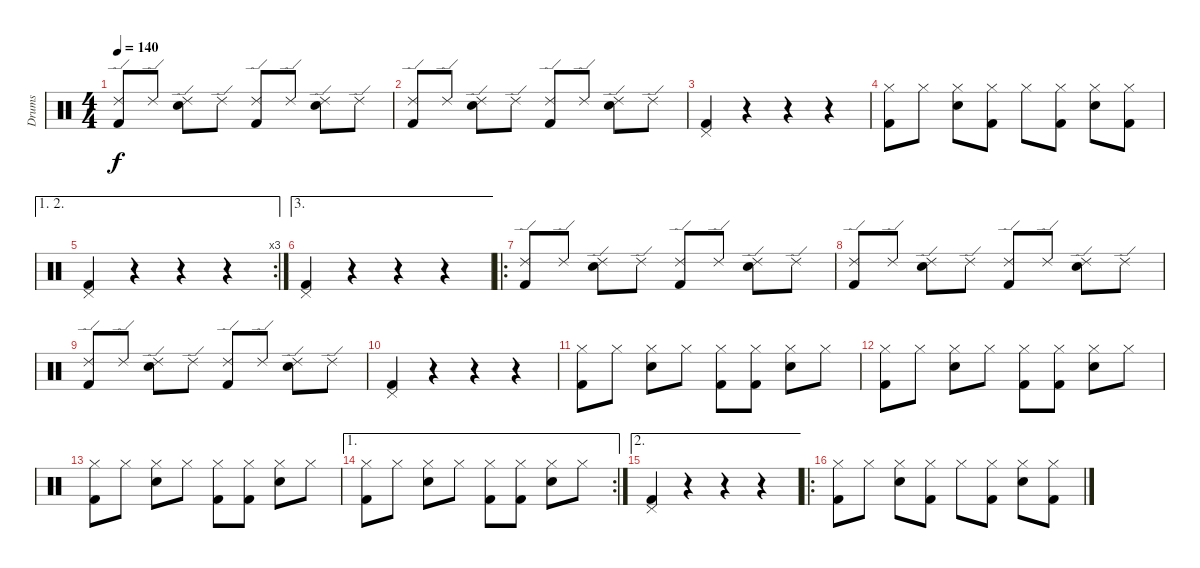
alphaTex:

\track ("Drums" "Drums") {instrument percussion}
\staff {score}
\articulation defaults
\ts (4 4)
\tempo 140
\clef neutral
\ks c
("Ride (edge) 2" "Kick (hit) 2").8{dy f} "Ride (edge) 2".8 ("Ride (edge) 2" "Snare (hit) 2").8 "Ride (edge) 2".8 ("Ride (edge) 2" "Kick (hit) 2").8 "Ride (edge) 2".8 ("Ride (edge) 2" "Snare (hit) 2").8 "Ride (edge) 2".8 |
("Ride (edge) 2" "Kick (hit) 2").8 "Ride (edge) 2".8 ("Ride (edge) 2" "Snare (hit) 2").8 "Ride (edge) 2".8 ("Ride (edge) 2" "Kick (hit) 2").8 "Ride (edge) 2".8 ("Ride (edge) 2" "Snare (hit) 2").8 "Ride (edge) 2".8 |
("Pedal Hi-Hat (hit)" "Kick (hit) 2").4 r.4 r.4 r.4 |
("Hi-Hat (closed)" "Kick (hit) 2").8 "Hi-Hat (closed)".8 ("Hi-Hat (closed)" "Snare (hit) 2").8 ("Hi-Hat (closed)" "Kick (hit) 2").8 "Hi-Hat (closed)".8 ("Hi-Hat (closed)" "Kick (hit) 2").8 ("Hi-Hat (closed)" "Snare (hit) 2").8 ("Hi-Hat (closed)" "Kick (hit) 2").8 |
\ae (1 2)
\rc 3
("Pedal Hi-Hat (hit)" "Kick (hit) 2").4 r.4 r.4 r.4 |
\ae 3
("Pedal Hi-Hat (hit)" "Kick (hit) 2").4 r.4 r.4 r.4 |
\ro
("Ride (edge) 2" "Kick (hit) 2").8 "Ride (edge) 2".8 ("Ride (edge) 2" "Snare (hit) 2").8 "Ride (edge) 2".8 ("Ride (edge) 2" "Kick (hit) 2").8 "Ride (edge) 2".8 ("Ride (edge) 2" "Snare (hit) 2").8 "Ride (edge) 2".8 |
("Ride (edge) 2" "Kick (hit) 2").8 "Ride (edge) 2".8 ("Ride (edge) 2" "Snare (hit) 2").8 "Ride (edge) 2".8 ("Ride (edge) 2" "Kick (hit) 2").8 "Ride (edge) 2".8 ("Ride (edge) 2" "Snare (hit) 2").8 "Ride (edge) 2".8 |
("Ride (edge) 2" "Kick (hit) 2").8 "Ride (edge) 2".8 ("Ride (edge) 2" "Snare (hit) 2").8 "Ride (edge) 2".8 ("Ride (edge) 2" "Kick (hit) 2").8 "Ride (edge) 2".8 ("Ride (edge) 2" "Snare (hit) 2").8 "Ride (edge) 2".8 |
("Pedal Hi-Hat (hit)" "Kick (hit) 2").4 r.4 r.4 r.4 |
("Hi-Hat (closed)" "Kick (hit) 2").8 "Hi-Hat (closed)".8 ("Hi-Hat (closed)" "Snare (hit) 2").8 "Hi-Hat (closed)".8 ("Hi-Hat (closed)" "Kick (hit) 2").8 ("Hi-Hat (closed)" "Kick (hit) 2").8 ("Hi-Hat (closed)" "Snare (hit) 2").8 "Hi-Hat (closed)".8 |
("Hi-Hat (closed)" "Kick (hit) 2").8 "Hi-Hat (closed)".8 ("Hi-Hat (closed)" "Snare (hit) 2").8 "Hi-Hat (closed)".8 ("Hi-Hat (closed)" "Kick (hit) 2").8 ("Hi-Hat (closed)" "Kick (hit) 2").8 ("Hi-Hat (closed)" "Snare (hit) 2").8 "Hi-Hat (closed)".8 |
("Hi-Hat (closed)" "Kick (hit) 2").8 "Hi-Hat (closed)".8 ("Hi-Hat (closed)" "Snare (hit) 2").8 "Hi-Hat (closed)".8 ("Hi-Hat (closed)" "Kick (hit) 2").8 ("Hi-Hat (closed)" "Kick (hit) 2").8 ("Hi-Hat (closed)" "Snare (hit) 2").8 "Hi-Hat (closed)".8 |
\ae 1
\rc 2
("Hi-Hat (closed)" "Kick (hit) 2").8 "Hi-Hat (closed)".8 ("Hi-Hat (closed)" "Snare (hit) 2").8 "Hi-Hat (closed)".8 ("Hi-Hat (closed)" "Kick (hit) 2").8 ("Hi-Hat (closed)" "Kick (hit) 2").8 ("Hi-Hat (closed)" "Snare (hit) 2").8 "Hi-Hat (closed)".8 |
\ae 2
("Pedal Hi-Hat (hit)" "Kick (hit) 2").4 r.4 r.4 r.4 |
\ro
("Hi-Hat (closed)" "Kick (hit) 2").8 "Hi-Hat (closed)".8 ("Hi-Hat (closed)" "Snare (hit) 2").8 ("Hi-Hat (closed)" "Kick (hit) 2").8 "Hi-Hat (closed)".8 ("Hi-Hat (closed)" "Kick (hit) 2").8 ("Hi-Hat (closed)" "Snare (hit) 2").8 ("Hi-Hat (closed)" "Kick (hit) 2").8
